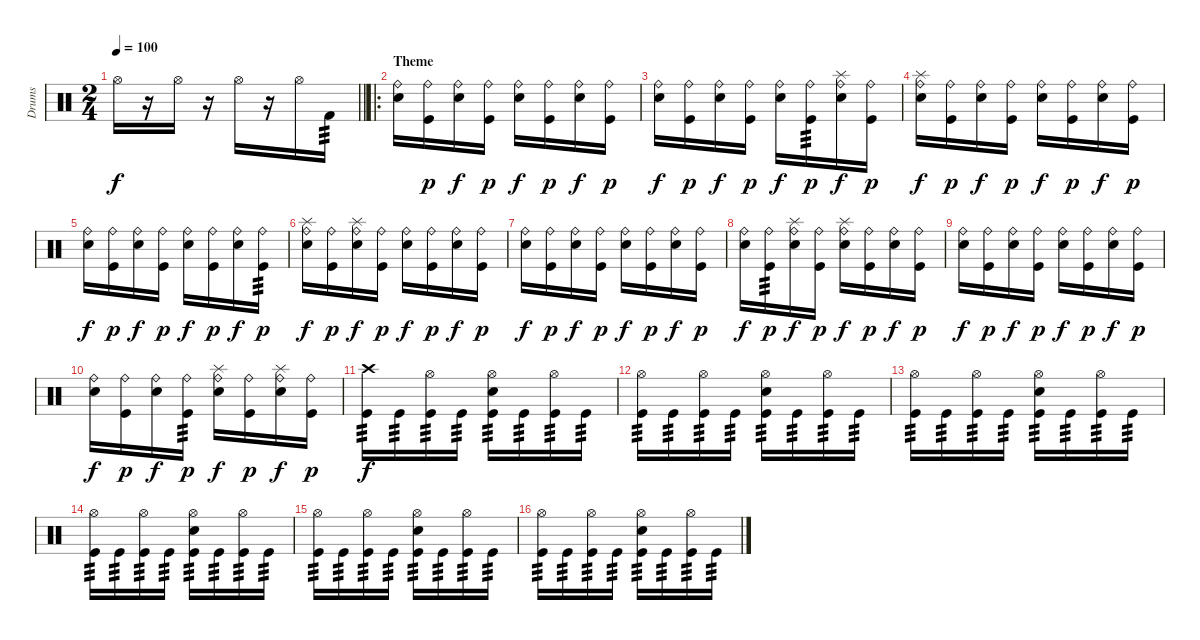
\track ("Drums" "Drums") {instrument percussion}
\staff {score}
\articulation defaults
\ts (2 4)
\tempo 100
\clef neutral
\barLineRight lightlight
\ks c "Hi-Hat (open)".16{dy f}
r.16 "Hi-Hat (open)".16 r.16 "Hi-Hat (open)".16 r.16 "Hi-Hat (open)".16 "Kick (hit) 2".16{tp 3} |
\ro
\section ("" "Theme")
("Electric Snare (hit)" "Ride (bell)").16 ("Kick (hit)" "Ride (bell)").16{dy p} ("Electric Snare (hit)" "Ride (bell)").16{dy f} ("Kick (hit)" "Ride (bell)").16{dy p} ("Electric Snare (hit)" "Ride (bell)").16{dy f} ("Kick (hit)" "Ride (bell)").16{dy p} ("Electric Snare (hit)" "Ride (bell)").16{dy f} ("Kick (hit)" "Ride (bell)").16{dy p} |
("Electric Snare (hit)" "Ride (bell)").16{dy f} ("Kick (hit)" "Ride (bell)").16{dy p} ("Electric Snare (hit)" "Ride (bell)").16{dy f} ("Kick (hit)" "Ride (bell)").16{dy p} ("Electric Snare (hit)" "Ride (bell)").16{dy f} ("Kick (hit)" "Ride (bell)").16{tp 3 dy p} ("Electric Snare (hit)" "Splash (hit)" "Ride (bell)").16{dy f} ("Kick (hit)" "Ride (bell)").16{dy p} |
("Electric Snare (hit)" "Splash (hit)" "Ride (bell)").16{dy f} ("Kick (hit)" "Ride (bell)").16{dy p} ("Electric Snare (hit)" "Ride (bell)").16{dy f} ("Kick (hit)" "Ride (bell)").16{dy p} ("Electric Snare (hit)" "Ride (bell)").16{dy f} ("Kick (hit)" "Ride (bell)").16{dy p} ("Electric Snare (hit)" "Ride (bell)").16{dy f} ("Kick (hit)" "Ride (bell)").16{dy p} |
("Electric Snare (hit)" "Ride (bell)").16{dy f} ("Kick (hit)" "Ride (bell)").16{dy p} ("Electric Snare (hit)" "Ride (bell)").16{dy f} ("Kick (hit)" "Ride (bell)").16{dy p} ("Electric Snare (hit)" "Ride (bell)").16{dy f} ("Kick (hit)" "Ride (bell)").16{dy p} ("Electric Snare (hit)" "Ride (bell)").16{dy f} ("Kick (hit)" "Ride (bell)").16{tp 3 dy p} |
("Electric Snare (hit)" "Splash (hit)" "Ride (bell)").16{dy f} ("Kick (hit)" "Ride (bell)").16{dy p} ("Electric Snare (hit)" "Splash (hit)" "Ride (bell)").16{dy f} ("Kick (hit)" "Ride (bell)").16{dy p} ("Electric Snare (hit)" "Ride (bell)").16{dy f} ("Kick (hit)" "Ride (bell)").16{dy p} ("Electric Snare (hit)" "Ride (bell)").16{dy f} ("Kick (hit)" "Ride (bell)").16{dy p} |
("Electric Snare (hit)" "Ride (bell)").16{dy f} ("Kick (hit)" "Ride (bell)").16{dy p} ("Electric Snare (hit)" "Ride (bell)").16{dy f} ("Kick (hit)" "Ride (bell)").16{dy p} ("Electric Snare (hit)" "Ride (bell)").16{dy f} ("Kick (hit)" "Ride (bell)").16{dy p} ("Electric Snare (hit)" "Ride (bell)").16{dy f} ("Kick (hit)" "Ride (bell)").16{dy p} |
("Electric Snare (hit)" "Ride (bell)").16{dy f} ("Kick (hit)" "Ride (bell)").16{tp 3 dy p} ("Electric Snare (hit)" "Splash (hit)" "Ride (bell)").16{dy f} ("Kick (hit)" "Ride (bell)").16{dy p} ("Electric Snare (hit)" "Splash (hit)" "Ride (bell)").16{dy f} ("Kick (hit)" "Ride (bell)").16{dy p} ("Electric Snare (hit)" "Ride (bell)").16{dy f} ("Kick (hit)" "Ride (bell)").16{dy p} |
("Electric Snare (hit)" "Ride (bell)").16{dy f} ("Kick (hit)" "Ride (bell)").16{dy p} ("Electric Snare (hit)" "Ride (bell)").16{dy f} ("Kick (hit)" "Ride (bell)").16{dy p} ("Electric Snare (hit)" "Ride (bell)").16{dy f} ("Kick (hit)" "Ride (bell)").16{dy p} ("Electric Snare (hit)" "Ride (bell)").16{dy f} ("Kick (hit)" "Ride (bell)").16{dy p} |
("Electric Snare (hit)" "Ride (bell)").16{dy f} ("Kick (hit)" "Ride (bell)").16{dy p} ("Electric Snare (hit)" "Ride (bell)").16{dy f} ("Kick (hit)" "Ride (bell)").16{tp 3 dy p} ("Electric Snare (hit)" "Splash (hit)" "Ride (bell)").16{dy f} ("Kick (hit)" "Ride (bell)").16{dy p} ("Electric Snare (hit)" "Splash (hit)" "Ride (bell)").16{dy f} ("Kick (hit)" "Ride (bell)").16{dy p} |
("Kick (hit)" "Crash high (hit)").16{tp 3 dy f} "Kick (hit)".16{tp 3} ("Kick (hit)" "Hi-Hat (open)").16{tp 3} "Kick (hit)".16{tp 3} ("Kick (hit)" "Hi-Hat (open)" "Electric Snare (hit)").16{tp 3} "Kick (hit)".16{tp 3} ("Kick (hit)" "Hi-Hat (open)").16{tp 3} "Kick (hit)".16{tp 3} |
("Kick (hit)" "Hi-Hat (open)").16{tp 3} "Kick (hit)".16{tp 3} ("Kick (hit)" "Hi-Hat (open)").16{tp 3} "Kick (hit)".16{tp 3} ("Kick (hit)" "Hi-Hat (open)" "Electric Snare (hit)").16{tp 3} "Kick (hit)".16{tp 3} ("Kick (hit)" "Hi-Hat (open)").16{tp 3} "Kick (hit)".16{tp 3} |
("Kick (hit)" "Hi-Hat (open)").16{tp 3} "Kick (hit)".16{tp 3} ("Kick (hit)" "Hi-Hat (open)").16{tp 3} "Kick (hit)".16{tp 3} ("Kick (hit)" "Hi-Hat (open)" "Electric Snare (hit)").16{tp 3} "Kick (hit)".16{tp 3} ("Kick (hit)" "Hi-Hat (open)").16{tp 3} "Kick (hit)".16{tp 3} |
("Kick (hit)" "Hi-Hat (open)").16{tp 3} "Kick (hit)".16{tp 3} ("Kick (hit)" "Hi-Hat (open)").16{tp 3} "Kick (hit)".16{tp 3} ("Kick (hit)" "Hi-Hat (open)" "Electric Snare (hit)").16{tp 3} "Kick (hit)".16{tp 3} ("Kick (hit)" "Hi-Hat (open)").16{tp 3} "Kick (hit)".16{tp 3} |
("Kick (hit)" "Hi-Hat (open)").16{tp 3} "Kick (hit)".16{tp 3} ("Kick (hit)" "Hi-Hat (open)").16{tp 3} "Kick (hit)".16{tp 3} ("Kick (hit)" "Hi-Hat (open)" "Electric Snare (hit)").16{tp 3} "Kick (hit)".16{tp 3} ("Kick (hit)" "Hi-Hat (open)").16{tp 3} "Kick (hit)".16{tp 3} |
("Kick (hit)" "Hi-Hat (open)").16{tp 3} "Kick (hit)".16{tp 3} ("Kick (hit)" "Hi-Hat (open)").16{tp 3} "Kick (hit)".16{tp 3} ("Kick (hit)" "Hi-Hat (open)" "Electric Snare (hit)").16{tp 3} "Kick (hit)".16{tp 3} ("Kick (hit)" "Hi-Hat (open)").16{tp 3} "Kick (hit)".16{tp 3}
